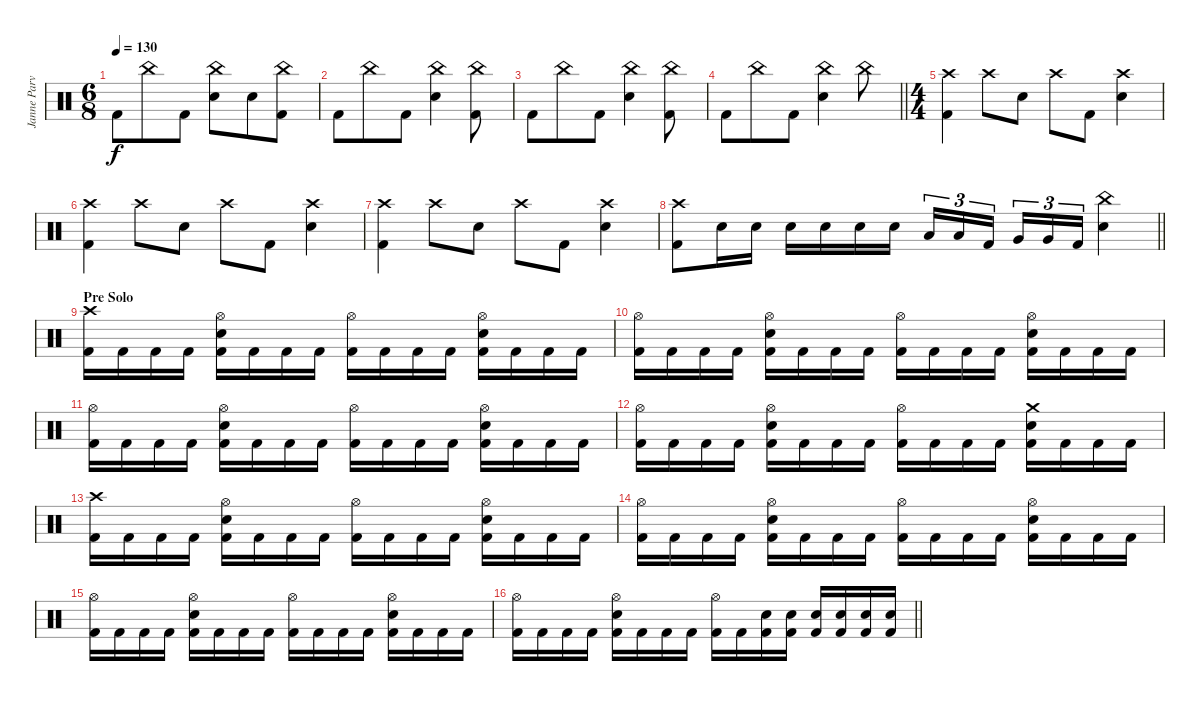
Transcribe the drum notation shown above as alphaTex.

\track ("Janne Parviainen" "Janne Parv") {instrument percussion}
\staff {score}
\articulation defaults
\ts (6 8)
\tempo 130
\clef neutral
\ks c "Kick (hit) 2".8{dy f} "China (hit)".8 "Kick (hit) 2".8
("China (hit)" "Electric Snare (hit)").8 "Electric Snare (hit)".8 ("China (hit)" "Kick (hit) 2").8 |
"Kick (hit) 2".8 "China (hit)".8 "Kick (hit) 2".8 ("China (hit)" "Electric Snare (hit)").4 ("China (hit)" "Kick (hit) 2").8 |
"Kick (hit) 2".8 "China (hit)".8 "Kick (hit) 2".8 ("China (hit)" "Electric Snare (hit)").4 ("China (hit)" "Kick (hit) 2").8 |
\barLineRight lightlight "Kick (hit) 2".8 "China (hit)".8 "Kick (hit) 2".8
("China (hit)" "Electric Snare (hit)").4 "China (hit)".8 |
\ts (4 4)
\section ("" "")
("Crash high (hit)" "Kick (hit) 2").4 "Crash high (hit)".8 "Electric Snare (hit)".8 "Crash high (hit)".8 "Kick (hit) 2".8 ("Crash high (hit)" "Electric Snare (hit)").4 |
("Crash high (hit)" "Kick (hit) 2").4 "Crash high (hit)".8 "Electric Snare (hit)".8 "Crash high (hit)".8 "Kick (hit) 2".8 ("Crash high (hit)" "Electric Snare (hit)").4 |
("Crash high (hit)" "Kick (hit) 2").4 "Crash high (hit)".8 "Electric Snare (hit)".8 "Crash high (hit)".8 "Kick (hit) 2".8 ("Crash high (hit)" "Electric Snare (hit)").4 |
\barLineRight lightlight
("Crash high (hit)" "Kick (hit) 2").8 "Electric Snare (hit)".16 "Electric Snare (hit)".16 "Electric Snare (hit)".16 "Electric Snare (hit)".16 "Electric Snare (hit)".16 "Electric Snare (hit)".16 "Low Tom (hit)".16{tu (3 2)} "Low Tom (hit)".16{tu (3 2)} "Kick (hit) 2".16{tu (3 2)} "Very Low Tom (hit)".16{tu (3 2)} "Very Low Tom (hit)".16{tu (3 2)} "Kick (hit) 2".16{tu (3 2)} ("China (hit)" "Electric Snare (hit)").4 |
\section ("" "Pre Solo")
("Crash high (hit)" "Kick (hit) 2").16 "Kick (hit) 2".16 "Kick (hit) 2".16 "Kick (hit) 2".16 ("Hi-Hat (open)" "Electric Snare (hit)" "Kick (hit) 2").16 "Kick (hit) 2".16 "Kick (hit) 2".16 "Kick (hit) 2".16 ("Hi-Hat (open)" "Kick (hit) 2").16 "Kick (hit) 2".16 "Kick (hit) 2".16 "Kick (hit) 2".16 ("Hi-Hat (open)" "Electric Snare (hit)" "Kick (hit) 2").16 "Kick (hit) 2".16 "Kick (hit) 2".16 "Kick (hit) 2".16 |
("Hi-Hat (open)" "Kick (hit) 2").16 "Kick (hit) 2".16 "Kick (hit) 2".16 "Kick (hit) 2".16 ("Hi-Hat (open)" "Electric Snare (hit)" "Kick (hit) 2").16 "Kick (hit) 2".16 "Kick (hit) 2".16 "Kick (hit) 2".16 ("Hi-Hat (open)" "Kick (hit) 2").16 "Kick (hit) 2".16 "Kick (hit) 2".16 "Kick (hit) 2".16 ("Hi-Hat (open)" "Electric Snare (hit)" "Kick (hit) 2").16 "Kick (hit) 2".16 "Kick (hit) 2".16 "Kick (hit) 2".16 |
("Hi-Hat (open)" "Kick (hit) 2").16 "Kick (hit) 2".16 "Kick (hit) 2".16 "Kick (hit) 2".16 ("Hi-Hat (open)" "Electric Snare (hit)" "Kick (hit) 2").16 "Kick (hit) 2".16 "Kick (hit) 2".16 "Kick (hit) 2".16 ("Hi-Hat (open)" "Kick (hit) 2").16 "Kick (hit) 2".16 "Kick (hit) 2".16 "Kick (hit) 2".16 ("Hi-Hat (open)" "Electric Snare (hit)" "Kick (hit) 2").16 "Kick (hit) 2".16 "Kick (hit) 2".16 "Kick (hit) 2".16 |
("Hi-Hat (open)" "Kick (hit) 2").16 "Kick (hit) 2".16 "Kick (hit) 2".16 "Kick (hit) 2".16 ("Hi-Hat (open)" "Electric Snare (hit)" "Kick (hit) 2").16 "Kick (hit) 2".16 "Kick (hit) 2".16 "Kick (hit) 2".16 ("Hi-Hat (open)" "Kick (hit) 2").16 "Kick (hit) 2".16 "Kick (hit) 2".16 "Kick (hit) 2".16 ("Crash medium (hit)" "Electric Snare (hit)" "Kick (hit) 2").16 "Kick (hit) 2".16 "Kick (hit) 2".16 "Kick (hit) 2".16 |
("Crash high (hit)" "Kick (hit) 2").16 "Kick (hit) 2".16 "Kick (hit) 2".16 "Kick (hit) 2".16 ("Hi-Hat (open)" "Electric Snare (hit)" "Kick (hit) 2").16 "Kick (hit) 2".16 "Kick (hit) 2".16 "Kick (hit) 2".16 ("Hi-Hat (open)" "Kick (hit) 2").16 "Kick (hit) 2".16 "Kick (hit) 2".16 "Kick (hit) 2".16 ("Hi-Hat (open)" "Electric Snare (hit)" "Kick (hit) 2").16 "Kick (hit) 2".16 "Kick (hit) 2".16 "Kick (hit) 2".16 |
("Hi-Hat (open)" "Kick (hit) 2").16 "Kick (hit) 2".16 "Kick (hit) 2".16 "Kick (hit) 2".16 ("Hi-Hat (open)" "Electric Snare (hit)" "Kick (hit) 2").16 "Kick (hit) 2".16 "Kick (hit) 2".16 "Kick (hit) 2".16 ("Hi-Hat (open)" "Kick (hit) 2").16 "Kick (hit) 2".16 "Kick (hit) 2".16 "Kick (hit) 2".16 ("Hi-Hat (open)" "Electric Snare (hit)" "Kick (hit) 2").16 "Kick (hit) 2".16 "Kick (hit) 2".16 "Kick (hit) 2".16 |
("Hi-Hat (open)" "Kick (hit) 2").16 "Kick (hit) 2".16 "Kick (hit) 2".16 "Kick (hit) 2".16 ("Hi-Hat (open)" "Electric Snare (hit)" "Kick (hit) 2").16 "Kick (hit) 2".16 "Kick (hit) 2".16 "Kick (hit) 2".16 ("Hi-Hat (open)" "Kick (hit) 2").16 "Kick (hit) 2".16 "Kick (hit) 2".16 "Kick (hit) 2".16 ("Hi-Hat (open)" "Electric Snare (hit)" "Kick (hit) 2").16 "Kick (hit) 2".16 "Kick (hit) 2".16 "Kick (hit) 2".16 |
\barLineRight lightlight
("Hi-Hat (open)" "Kick (hit) 2").16 "Kick (hit) 2".16 "Kick (hit) 2".16 "Kick (hit) 2".16 ("Hi-Hat (open)" "Electric Snare (hit)" "Kick (hit) 2").16 "Kick (hit) 2".16 "Kick (hit) 2".16 "Kick (hit) 2".16 ("Hi-Hat (open)" "Kick (hit) 2").16 "Kick (hit) 2".16 ("Electric Snare (hit)" "Kick (hit) 2").16 ("Electric Snare (hit)" "Kick (hit) 2").16 ("Electric Snare (hit)" "Kick (hit) 2").16 ("Electric Snare (hit)" "Kick (hit) 2").16 ("Electric Snare (hit)" "Kick (hit) 2").16 ("Electric Snare (hit)" "Kick (hit) 2").16
